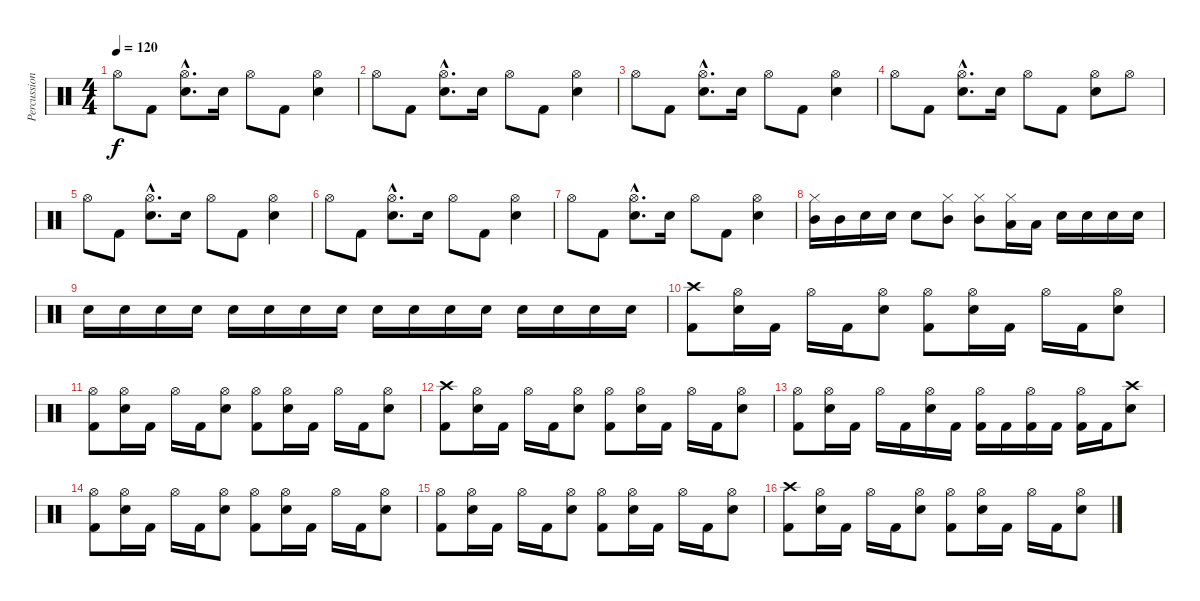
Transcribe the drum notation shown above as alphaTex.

\track ("Percussion" "Percussion") {instrument percussion}
\staff {score}
\articulation defaults
\ts (4 4)
\tempo 120
\clef neutral
\ks c "Hi-Hat (open)".8{dy f} "Kick (hit) 2".8
("Hi-Hat (open)"{hac} "Snare (hit) 2"{hac}).8{d} "Snare (hit) 2".16 "Hi-Hat (open)".8 "Kick (hit) 2".8 ("Hi-Hat (open)" "Snare (hit) 2").4 |
"Hi-Hat (open)".8 "Kick (hit) 2".8 ("Hi-Hat (open)"{hac} "Snare (hit) 2"{hac}).8{d} "Snare (hit) 2".16 "Hi-Hat (open)".8 "Kick (hit) 2".8 ("Hi-Hat (open)" "Snare (hit) 2").4 |
"Hi-Hat (open)".8 "Kick (hit) 2".8 ("Hi-Hat (open)"{hac} "Snare (hit) 2"{hac}).8{d} "Snare (hit) 2".16 "Hi-Hat (open)".8 "Kick (hit) 2".8 ("Hi-Hat (open)" "Snare (hit) 2").4 |
"Hi-Hat (open)".8 "Kick (hit) 2".8 ("Hi-Hat (open)"{hac} "Snare (hit) 2"{hac}).8{d} "Snare (hit) 2".16 "Hi-Hat (open)".8 "Kick (hit) 2".8 ("Hi-Hat (open)" "Snare (hit) 2").8 "Hi-Hat (open)".8 |
"Hi-Hat (open)".8 "Kick (hit) 2".8 ("Hi-Hat (open)"{hac} "Snare (hit) 2"{hac}).8{d} "Snare (hit) 2".16 "Hi-Hat (open)".8 "Kick (hit) 2".8 ("Hi-Hat (open)" "Snare (hit) 2").4 |
"Hi-Hat (open)".8 "Kick (hit) 2".8 ("Hi-Hat (open)"{hac} "Snare (hit) 2"{hac}).8{d} "Snare (hit) 2".16 "Hi-Hat (open)".8 "Kick (hit) 2".8 ("Hi-Hat (open)" "Snare (hit) 2").4 |
"Hi-Hat (open)".8 "Kick (hit) 2".8 ("Hi-Hat (open)"{hac} "Snare (hit) 2"{hac}).8{d} "Snare (hit) 2".16 "Hi-Hat (open)".8 "Kick (hit) 2".8 ("Hi-Hat (open)" "Snare (hit) 2").4 |
("Hi-Hat (closed)" "Mid Tom (hit)").16 "Mid Tom (hit)".16 "Snare (hit) 2".16 "Snare (hit) 2".16 "Snare (hit) 2".8 ("Hi-Hat (closed)" "Mid Tom (hit)").8 ("Hi-Hat (closed)" "Mid Tom (hit)").8 ("Hi-Hat (closed)" "Low Tom (hit)").16 "Low Tom (hit)".16 "Snare (hit) 2".16 "Snare (hit) 2".16 "Snare (hit) 2".16 "Snare (hit) 2".16 |
"Snare (hit) 2".16 "Snare (hit) 2".16 "Snare (hit) 2".16 "Snare (hit) 2".16 "Snare (hit) 2".16 "Snare (hit) 2".16 "Snare (hit) 2".16 "Snare (hit) 2".16 "Snare (hit) 2".16 "Snare (hit) 2".16 "Snare (hit) 2".16 "Snare (hit) 2".16 "Snare (hit) 2".16 "Snare (hit) 2".16 "Snare (hit) 2".16 "Snare (hit) 2".16 |
("Crash high (hit)" "Kick (hit) 2").8 ("Hi-Hat (open)" "Snare (hit) 2").16 "Kick (hit) 2".16 "Hi-Hat (open)".16 "Kick (hit) 2".16 ("Hi-Hat (open)" "Snare (hit) 2").8 ("Hi-Hat (open)" "Kick (hit) 2").8 ("Hi-Hat (open)" "Snare (hit) 2").16 "Kick (hit) 2".16 "Hi-Hat (open)".16 "Kick (hit) 2".16 ("Hi-Hat (open)" "Snare (hit) 2").8 |
("Hi-Hat (open)" "Kick (hit) 2").8 ("Hi-Hat (open)" "Snare (hit) 2").16 "Kick (hit) 2".16 "Hi-Hat (open)".16 "Kick (hit) 2".16 ("Hi-Hat (open)" "Snare (hit) 2").8 ("Hi-Hat (open)" "Kick (hit) 2").8 ("Hi-Hat (open)" "Snare (hit) 2").16 "Kick (hit) 2".16 "Hi-Hat (open)".16 "Kick (hit) 2".16 ("Hi-Hat (open)" "Snare (hit) 2").8 |
("Crash high (hit)" "Kick (hit) 2").8 ("Hi-Hat (open)" "Snare (hit) 2").16 "Kick (hit) 2".16 "Hi-Hat (open)".16 "Kick (hit) 2".16 ("Hi-Hat (open)" "Snare (hit) 2").8 ("Hi-Hat (open)" "Kick (hit) 2").8 ("Hi-Hat (open)" "Snare (hit) 2").16 "Kick (hit) 2".16 "Hi-Hat (open)".16 "Kick (hit) 2".16 ("Hi-Hat (open)" "Snare (hit) 2").8 |
("Hi-Hat (open)" "Kick (hit) 2").8 ("Hi-Hat (open)" "Snare (hit) 2").16 "Kick (hit) 2".16 "Hi-Hat (open)".16 "Kick (hit) 2".16 ("Hi-Hat (open)" "Snare (hit) 2").16 "Kick (hit) 2".16 ("Hi-Hat (open)" "Kick (hit) 2").16 "Kick (hit) 2".16 ("Hi-Hat (open)" "Kick (hit) 2").16 "Kick (hit) 2".16 ("Hi-Hat (open)" "Kick (hit) 2").16 "Kick (hit) 2".16 ("Crash high (hit)" "Snare (hit) 2").8 |
("Hi-Hat (open)" "Kick (hit) 2").8 ("Hi-Hat (open)" "Snare (hit) 2").16 "Kick (hit) 2".16 "Hi-Hat (open)".16 "Kick (hit) 2".16 ("Hi-Hat (open)" "Snare (hit) 2").8 ("Hi-Hat (open)" "Kick (hit) 2").8 ("Hi-Hat (open)" "Snare (hit) 2").16 "Kick (hit) 2".16 "Hi-Hat (open)".16 "Kick (hit) 2".16 ("Hi-Hat (open)" "Snare (hit) 2").8 |
("Hi-Hat (open)" "Kick (hit) 2").8 ("Hi-Hat (open)" "Snare (hit) 2").16 "Kick (hit) 2".16 "Hi-Hat (open)".16 "Kick (hit) 2".16 ("Hi-Hat (open)" "Snare (hit) 2").8 ("Hi-Hat (open)" "Kick (hit) 2").8 ("Hi-Hat (open)" "Snare (hit) 2").16 "Kick (hit) 2".16 "Hi-Hat (open)".16 "Kick (hit) 2".16 ("Hi-Hat (open)" "Snare (hit) 2").8 |
("Crash high (hit)" "Kick (hit) 2").8 ("Hi-Hat (open)" "Snare (hit) 2").16 "Kick (hit) 2".16 "Hi-Hat (open)".16 "Kick (hit) 2".16 ("Hi-Hat (open)" "Snare (hit) 2").8 ("Hi-Hat (open)" "Kick (hit) 2").8 ("Hi-Hat (open)" "Snare (hit) 2").16 "Kick (hit) 2".16 "Hi-Hat (open)".16 "Kick (hit) 2".16 ("Hi-Hat (open)" "Snare (hit) 2").8
